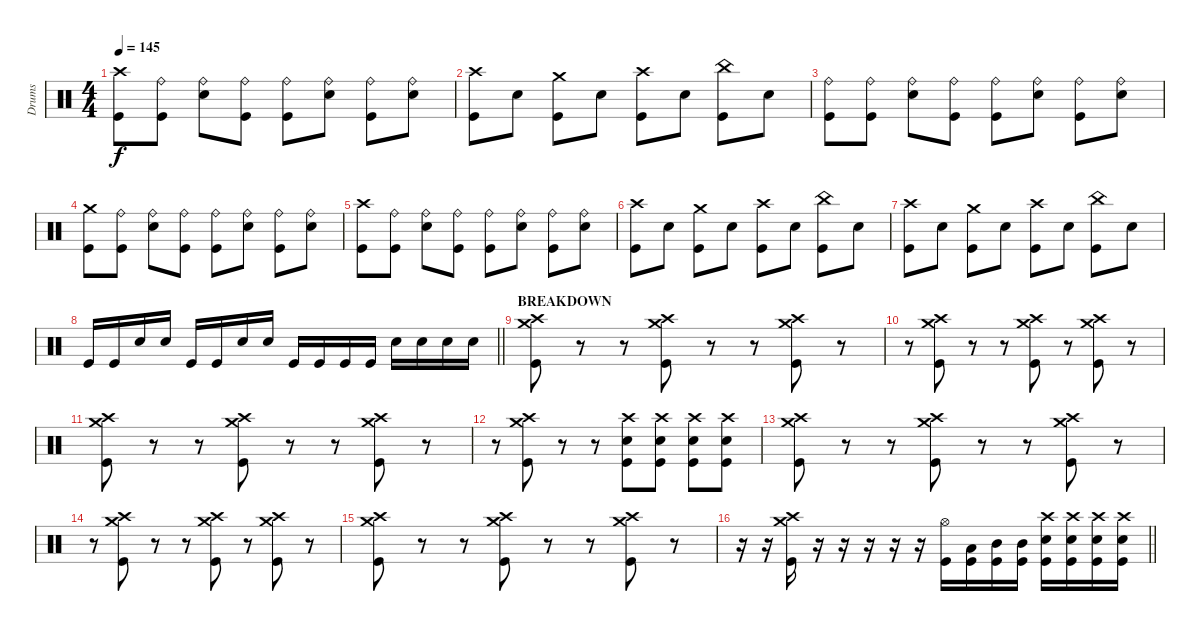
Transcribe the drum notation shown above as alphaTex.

\track ("Drums" "Drums") {instrument percussion}
\staff {score}
\articulation defaults
\ts (4 4)
\tempo 145
\clef neutral
\ks c
("Crash high (hit)" "Kick (hit)").8{dy f} ("Ride (bell)" "Kick (hit)").8 ("Ride (bell)" "Snare (hit) 2").8 ("Ride (bell)" "Kick (hit)").8 ("Ride (bell)" "Kick (hit)").8 ("Ride (bell)" "Snare (hit) 2").8 ("Ride (bell)" "Kick (hit)").8 ("Ride (bell)" "Snare (hit) 2").8 |
("Crash high (hit)" "Kick (hit)").8 "Snare (hit) 2".8 ("Crash medium (hit)" "Kick (hit)").8 "Snare (hit) 2".8 ("Crash high (hit)" "Kick (hit)").8 "Snare (hit) 2".8 ("China (hit)" "Kick (hit)").8 "Snare (hit) 2".8 |
("Ride (bell)" "Kick (hit)").8 ("Ride (bell)" "Kick (hit)").8 ("Ride (bell)" "Snare (hit) 2").8 ("Ride (bell)" "Kick (hit)").8 ("Ride (bell)" "Kick (hit)").8 ("Ride (bell)" "Snare (hit) 2").8 ("Ride (bell)" "Kick (hit)").8 ("Ride (bell)" "Snare (hit) 2").8 |
("Crash medium (hit)" "Kick (hit)").8 ("Ride (bell)" "Kick (hit)").8 ("Ride (bell)" "Snare (hit) 2").8 ("Ride (bell)" "Kick (hit)").8 ("Ride (bell)" "Kick (hit)").8 ("Ride (bell)" "Snare (hit) 2").8 ("Ride (bell)" "Kick (hit)").8 ("Ride (bell)" "Snare (hit) 2").8 |
("Crash high (hit)" "Kick (hit)").8 ("Ride (bell)" "Kick (hit)").8 ("Ride (bell)" "Snare (hit) 2").8 ("Ride (bell)" "Kick (hit)").8 ("Ride (bell)" "Kick (hit)").8 ("Ride (bell)" "Snare (hit) 2").8 ("Ride (bell)" "Kick (hit)").8 ("Ride (bell)" "Snare (hit) 2").8 |
("Crash high (hit)" "Kick (hit)").8 "Snare (hit) 2".8 ("Crash medium (hit)" "Kick (hit)").8 "Snare (hit) 2".8 ("Crash high (hit)" "Kick (hit)").8 "Snare (hit) 2".8 ("China (hit)" "Kick (hit)").8 "Snare (hit) 2".8 |
("Crash high (hit)" "Kick (hit)").8 "Snare (hit) 2".8 ("Crash medium (hit)" "Kick (hit)").8 "Snare (hit) 2".8 ("Crash high (hit)" "Kick (hit)").8 "Snare (hit) 2".8 ("China (hit)" "Kick (hit)").8 "Snare (hit) 2".8 |
\barLineRight lightlight "Kick (hit)".16 "Kick (hit)".16 "Snare (hit) 2".16 "Snare (hit) 2".16 "Kick (hit)".16 "Kick (hit)".16 "Snare (hit) 2".16 "Snare (hit) 2".16 "Kick (hit)".16 "Kick (hit)".16 "Kick (hit)".16 "Kick (hit)".16 "Snare (hit) 2".16 "Snare (hit) 2".16 "Snare (hit) 2".16 "Snare (hit) 2".16
|
\section ("" "BREAKDOWN")
("Crash high (hit)" "Crash medium (hit)" "Kick (hit)").8 r.8 r.8 ("Crash high (hit)" "Crash medium (hit)" "Kick (hit)").8 r.8 r.8 ("Crash high (hit)" "Crash medium (hit)" "Kick (hit)").8 r.8 |
r.8 ("Crash high (hit)" "Crash medium (hit)" "Kick (hit)").8 r.8 r.8 ("Crash high (hit)" "Crash medium (hit)" "Kick (hit)").8 r.8 ("Crash high (hit)" "Crash medium (hit)" "Kick (hit)").8 r.8 |
("Crash high (hit)" "Crash medium (hit)" "Kick (hit)").8 r.8 r.8 ("Crash high (hit)" "Crash medium (hit)" "Kick (hit)").8 r.8 r.8 ("Crash high (hit)" "Crash medium (hit)" "Kick (hit)").8 r.8 |
r.8 ("Crash high (hit)" "Crash medium (hit)" "Kick (hit)").8 r.8 r.8 ("Crash high (hit)" "Snare (hit) 2" "Kick (hit)").8 ("Crash high (hit)" "Snare (hit) 2" "Kick (hit)").8 ("Crash high (hit)" "Snare (hit) 2" "Kick (hit)").8 ("Crash high (hit)" "Snare (hit) 2" "Kick (hit)").8 |
("Crash high (hit)" "Crash medium (hit)" "Kick (hit)").8 r.8 r.8 ("Crash high (hit)" "Crash medium (hit)" "Kick (hit)").8 r.8 r.8 ("Crash high (hit)" "Crash medium (hit)" "Kick (hit)").8 r.8 |
r.8 ("Crash high (hit)" "Crash medium (hit)" "Kick (hit)").8 r.8 r.8 ("Crash high (hit)" "Crash medium (hit)" "Kick (hit)").8 r.8 ("Crash high (hit)" "Crash medium (hit)" "Kick (hit)").8 r.8 |
("Crash high (hit)" "Crash medium (hit)" "Kick (hit)").8 r.8 r.8 ("Crash high (hit)" "Crash medium (hit)" "Kick (hit)").8 r.8 r.8 ("Crash high (hit)" "Crash medium (hit)" "Kick (hit)").8 r.8 |
\barLineRight lightlight
r.16 r.16 ("Crash high (hit)" "Crash medium (hit)" "Kick (hit)").16 r.16 r.16 r.16 r.16 r.16 ("Hi-Hat (open)" "Kick (hit)").16 ("Low Tom (hit)" "Kick (hit)").16 ("Mid Tom (hit)" "Kick (hit)").16 ("Mid Tom (hit)" "Kick (hit)").16 ("Crash high (hit)" "Snare (hit) 2" "Kick (hit)").16 ("Crash high (hit)" "Snare (hit) 2" "Kick (hit)").16 ("Crash high (hit)" "Snare (hit) 2" "Kick (hit)").16 ("Crash high (hit)" "Snare (hit) 2" "Kick (hit)").16
